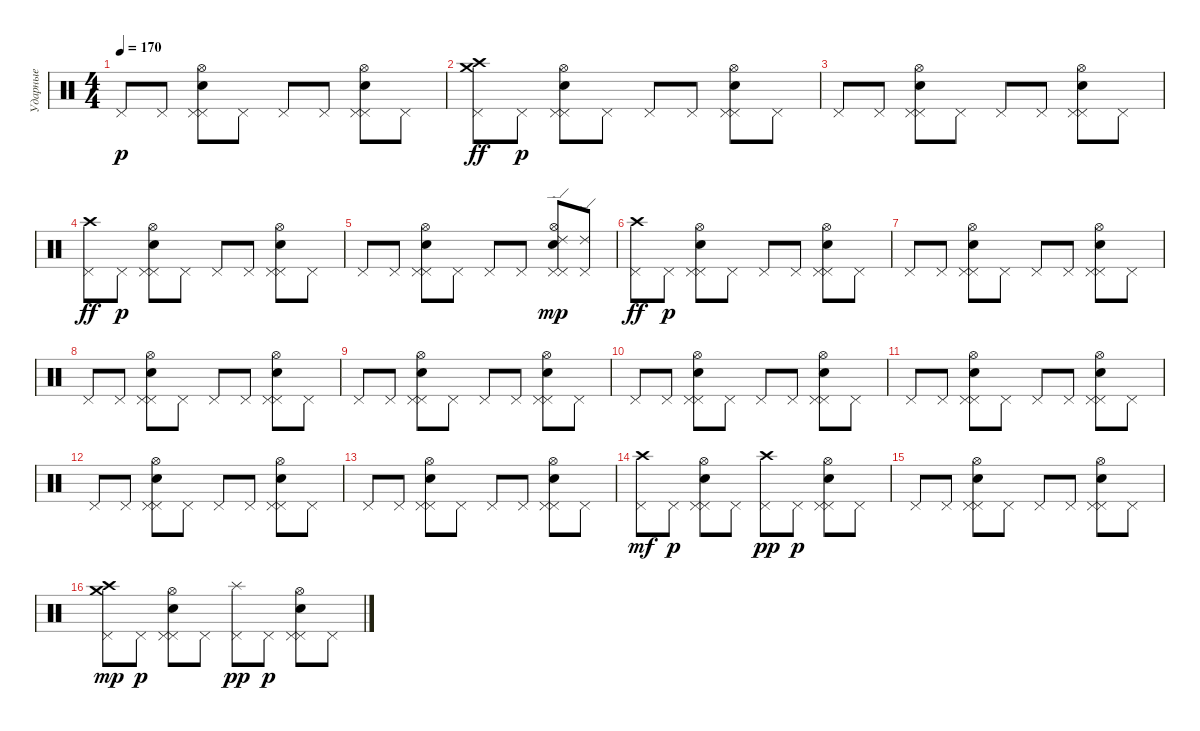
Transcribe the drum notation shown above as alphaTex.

\track ("Ударные" "Ударные") {instrument percussion}
\staff {score}
\articulation defaults
\ts (4 4)
\tempo 170
\clef neutral
\ks c "Pedal Hi-Hat (hit)".8{dy p} "Pedal Hi-Hat (hit)".8
("Pedal Hi-Hat (hit)" "Snare (hit) 2" "Pedal Hi-Hat (hit)" "Hi-Hat (open)").8 "Pedal Hi-Hat (hit)".8 "Pedal Hi-Hat (hit)".8 "Pedal Hi-Hat (hit)".8 ("Pedal Hi-Hat (hit)" "Snare (hit) 2" "Pedal Hi-Hat (hit)" "Hi-Hat (open)").8 "Pedal Hi-Hat (hit)".8 |
("Pedal Hi-Hat (hit)" "Crash medium (hit)" "Crash high (hit)").8{dy ff} "Pedal Hi-Hat (hit)".8{dy p} ("Pedal Hi-Hat (hit)" "Snare (hit) 2" "Pedal Hi-Hat (hit)" "Hi-Hat (open)").8 "Pedal Hi-Hat (hit)".8 "Pedal Hi-Hat (hit)".8 "Pedal Hi-Hat (hit)".8 ("Pedal Hi-Hat (hit)" "Snare (hit) 2" "Pedal Hi-Hat (hit)" "Hi-Hat (open)").8 "Pedal Hi-Hat (hit)".8 |
"Pedal Hi-Hat (hit)".8 "Pedal Hi-Hat (hit)".8 ("Pedal Hi-Hat (hit)" "Snare (hit) 2" "Pedal Hi-Hat (hit)" "Hi-Hat (open)").8 "Pedal Hi-Hat (hit)".8 "Pedal Hi-Hat (hit)".8 "Pedal Hi-Hat (hit)".8 ("Pedal Hi-Hat (hit)" "Snare (hit) 2" "Pedal Hi-Hat (hit)" "Hi-Hat (open)").8 "Pedal Hi-Hat (hit)".8 |
("Pedal Hi-Hat (hit)" "Crash high (hit)").8{dy ff} "Pedal Hi-Hat (hit)".8{dy p} ("Pedal Hi-Hat (hit)" "Snare (hit) 2" "Pedal Hi-Hat (hit)" "Hi-Hat (open)").8 "Pedal Hi-Hat (hit)".8 "Pedal Hi-Hat (hit)".8 "Pedal Hi-Hat (hit)".8 ("Pedal Hi-Hat (hit)" "Snare (hit) 2" "Pedal Hi-Hat (hit)" "Hi-Hat (open)").8 "Pedal Hi-Hat (hit)".8 |
"Pedal Hi-Hat (hit)".8 "Pedal Hi-Hat (hit)".8 ("Pedal Hi-Hat (hit)" "Snare (hit) 2" "Pedal Hi-Hat (hit)" "Hi-Hat (open)").8 "Pedal Hi-Hat (hit)".8 "Pedal Hi-Hat (hit)".8 "Pedal Hi-Hat (hit)".8 ("Pedal Hi-Hat (hit)" "Snare (hit) 2" "Pedal Hi-Hat (hit)" "Hi-Hat (open)" "Ride (edge) 2").8{dy mp} ("Pedal Hi-Hat (hit)" "Ride (edge) 2").8 |
("Pedal Hi-Hat (hit)" "Crash high (hit)").8{dy ff} "Pedal Hi-Hat (hit)".8{dy p} ("Pedal Hi-Hat (hit)" "Snare (hit) 2" "Pedal Hi-Hat (hit)" "Hi-Hat (open)").8 "Pedal Hi-Hat (hit)".8 "Pedal Hi-Hat (hit)".8 "Pedal Hi-Hat (hit)".8 ("Pedal Hi-Hat (hit)" "Snare (hit) 2" "Pedal Hi-Hat (hit)" "Hi-Hat (open)").8 "Pedal Hi-Hat (hit)".8 |
"Pedal Hi-Hat (hit)".8 "Pedal Hi-Hat (hit)".8 ("Pedal Hi-Hat (hit)" "Snare (hit) 2" "Pedal Hi-Hat (hit)" "Hi-Hat (open)").8 "Pedal Hi-Hat (hit)".8 "Pedal Hi-Hat (hit)".8 "Pedal Hi-Hat (hit)".8 ("Pedal Hi-Hat (hit)" "Snare (hit) 2" "Pedal Hi-Hat (hit)" "Hi-Hat (open)").8 "Pedal Hi-Hat (hit)".8 |
"Pedal Hi-Hat (hit)".8 "Pedal Hi-Hat (hit)".8 ("Pedal Hi-Hat (hit)" "Snare (hit) 2" "Pedal Hi-Hat (hit)" "Hi-Hat (open)").8 "Pedal Hi-Hat (hit)".8 "Pedal Hi-Hat (hit)".8 "Pedal Hi-Hat (hit)".8 ("Pedal Hi-Hat (hit)" "Snare (hit) 2" "Pedal Hi-Hat (hit)" "Hi-Hat (open)").8 "Pedal Hi-Hat (hit)".8 |
"Pedal Hi-Hat (hit)".8 "Pedal Hi-Hat (hit)".8 ("Pedal Hi-Hat (hit)" "Snare (hit) 2" "Pedal Hi-Hat (hit)" "Hi-Hat (open)").8 "Pedal Hi-Hat (hit)".8 "Pedal Hi-Hat (hit)".8 "Pedal Hi-Hat (hit)".8 ("Pedal Hi-Hat (hit)" "Snare (hit) 2" "Pedal Hi-Hat (hit)" "Hi-Hat (open)").8 "Pedal Hi-Hat (hit)".8 |
"Pedal Hi-Hat (hit)".8 "Pedal Hi-Hat (hit)".8 ("Pedal Hi-Hat (hit)" "Snare (hit) 2" "Pedal Hi-Hat (hit)" "Hi-Hat (open)").8 "Pedal Hi-Hat (hit)".8 "Pedal Hi-Hat (hit)".8 "Pedal Hi-Hat (hit)".8 ("Pedal Hi-Hat (hit)" "Snare (hit) 2" "Pedal Hi-Hat (hit)" "Hi-Hat (open)").8 "Pedal Hi-Hat (hit)".8 |
"Pedal Hi-Hat (hit)".8 "Pedal Hi-Hat (hit)".8 ("Pedal Hi-Hat (hit)" "Snare (hit) 2" "Pedal Hi-Hat (hit)" "Hi-Hat (open)").8 "Pedal Hi-Hat (hit)".8 "Pedal Hi-Hat (hit)".8 "Pedal Hi-Hat (hit)".8 ("Pedal Hi-Hat (hit)" "Snare (hit) 2" "Pedal Hi-Hat (hit)" "Hi-Hat (open)").8 "Pedal Hi-Hat (hit)".8 |
"Pedal Hi-Hat (hit)".8 "Pedal Hi-Hat (hit)".8 ("Pedal Hi-Hat (hit)" "Snare (hit) 2" "Pedal Hi-Hat (hit)" "Hi-Hat (open)").8 "Pedal Hi-Hat (hit)".8 "Pedal Hi-Hat (hit)".8 "Pedal Hi-Hat (hit)".8 ("Pedal Hi-Hat (hit)" "Snare (hit) 2" "Pedal Hi-Hat (hit)" "Hi-Hat (open)").8 "Pedal Hi-Hat (hit)".8 |
"Pedal Hi-Hat (hit)".8 "Pedal Hi-Hat (hit)".8 ("Pedal Hi-Hat (hit)" "Snare (hit) 2" "Pedal Hi-Hat (hit)" "Hi-Hat (open)").8 "Pedal Hi-Hat (hit)".8 "Pedal Hi-Hat (hit)".8 "Pedal Hi-Hat (hit)".8 ("Pedal Hi-Hat (hit)" "Snare (hit) 2" "Pedal Hi-Hat (hit)" "Hi-Hat (open)").8 "Pedal Hi-Hat (hit)".8 |
("Pedal Hi-Hat (hit)" "Crash high (hit)").8{dy mf} "Pedal Hi-Hat (hit)".8{dy p} ("Pedal Hi-Hat (hit)" "Snare (hit) 2" "Pedal Hi-Hat (hit)" "Hi-Hat (open)").8 "Pedal Hi-Hat (hit)".8 ("Pedal Hi-Hat (hit)" "Crash high (hit)").8{dy pp} "Pedal Hi-Hat (hit)".8{dy p} ("Pedal Hi-Hat (hit)" "Snare (hit) 2" "Pedal Hi-Hat (hit)" "Hi-Hat (open)").8 "Pedal Hi-Hat (hit)".8 |
"Pedal Hi-Hat (hit)".8 "Pedal Hi-Hat (hit)".8 ("Pedal Hi-Hat (hit)" "Snare (hit) 2" "Pedal Hi-Hat (hit)" "Hi-Hat (open)").8 "Pedal Hi-Hat (hit)".8 "Pedal Hi-Hat (hit)".8 "Pedal Hi-Hat (hit)".8 ("Pedal Hi-Hat (hit)" "Snare (hit) 2" "Pedal Hi-Hat (hit)" "Hi-Hat (open)").8 "Pedal Hi-Hat (hit)".8 |
("Pedal Hi-Hat (hit)" "Crash high (hit)" "Crash medium (hit)").8{dy mp} "Pedal Hi-Hat (hit)".8{dy p} ("Pedal Hi-Hat (hit)" "Snare (hit) 2" "Pedal Hi-Hat (hit)" "Hi-Hat (open)").8 "Pedal Hi-Hat (hit)".8 ("Pedal Hi-Hat (hit)" "Splash (hit)").8{dy pp} "Pedal Hi-Hat (hit)".8{dy p} ("Pedal Hi-Hat (hit)" "Snare (hit) 2" "Pedal Hi-Hat (hit)" "Hi-Hat (open)").8 "Pedal Hi-Hat (hit)".8
